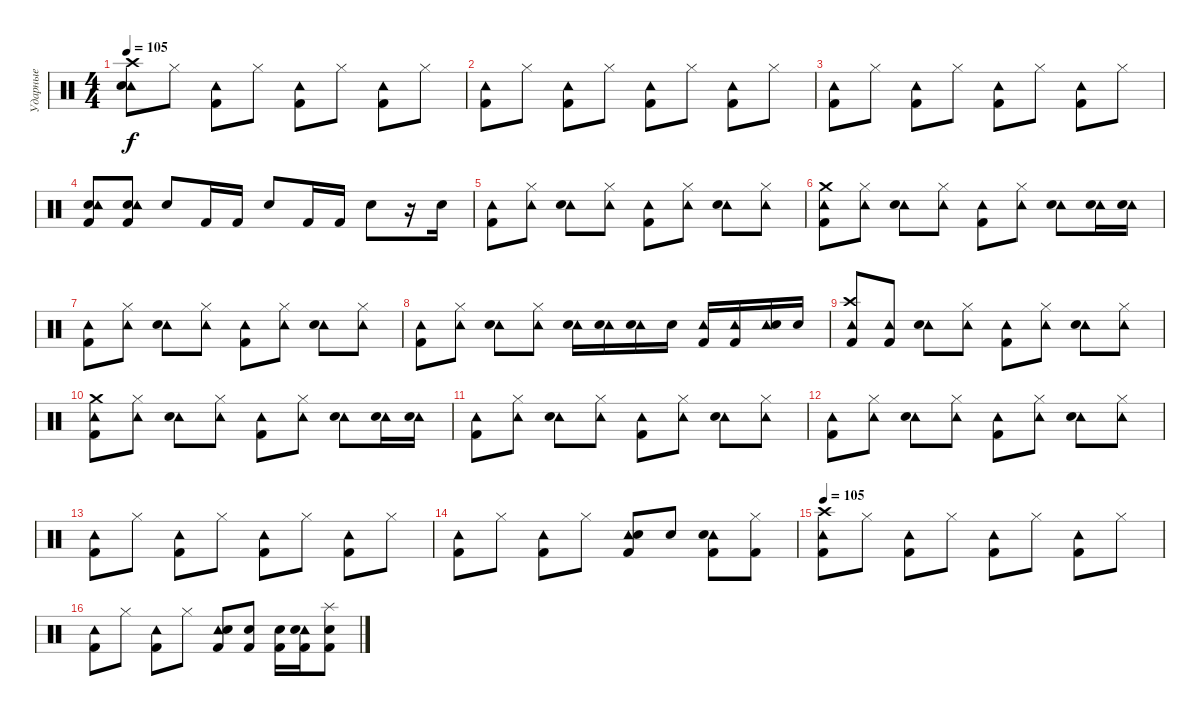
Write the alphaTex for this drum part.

\track ("Ударные" "Ударные") {instrument percussion}
\staff {score}
\articulation defaults
\ts (4 4)
\tempo 105
\clef neutral
\ks c
("Tambourine (hit)" "Crash high (hit)" "Snare (hit) 2").8{dy f} "Hi-Hat (closed)".8 ("Tambourine (hit)" "Kick (hit) 2").8 "Hi-Hat (closed)".8 ("Tambourine (hit)" "Kick (hit) 2").8 "Hi-Hat (closed)".8 ("Tambourine (hit)" "Kick (hit) 2").8 "Hi-Hat (closed)".8 |
("Tambourine (hit)" "Kick (hit) 2").8 "Hi-Hat (closed)".8 ("Tambourine (hit)" "Kick (hit) 2").8 "Hi-Hat (closed)".8 ("Tambourine (hit)" "Kick (hit) 2").8 "Hi-Hat (closed)".8 ("Tambourine (hit)" "Kick (hit) 2").8 "Hi-Hat (closed)".8 |
("Tambourine (hit)" "Kick (hit) 2").8 "Hi-Hat (closed)".8 ("Tambourine (hit)" "Kick (hit) 2").8 "Hi-Hat (closed)".8 ("Tambourine (hit)" "Kick (hit) 2").8 "Hi-Hat (closed)".8 ("Tambourine (hit)" "Kick (hit) 2").8 "Hi-Hat (closed)".8 |
("Snare (hit) 2" "Kick (hit) 2" "Tambourine (hit)").8 ("Snare (hit) 2" "Kick (hit) 2" "Tambourine (hit)").8 "Electric Snare (hit)".8 "Kick (hit) 2".16 "Kick (hit) 2".16 "Electric Snare (hit)".8 "Kick (hit) 2".16 "Kick (hit) 2".16 "Electric Snare (hit)".8 r.16 "Electric Snare (hit)".16 |
("Tambourine (hit)" "Kick (hit) 2").8 ("Tambourine (hit)" "Hi-Hat (closed)").8 ("Tambourine (hit)" "Snare (hit) 2").8 ("Tambourine (hit)" "Hi-Hat (closed)").8 ("Tambourine (hit)" "Kick (hit) 2").8 ("Tambourine (hit)" "Hi-Hat (closed)").8 ("Tambourine (hit)" "Snare (hit) 2").8 ("Tambourine (hit)" "Hi-Hat (closed)").8 |
("Tambourine (hit)" "Crash medium (hit)" "Kick (hit) 2").8 ("Tambourine (hit)" "Hi-Hat (closed)").8 ("Tambourine (hit)" "Snare (hit) 2").8 ("Tambourine (hit)" "Hi-Hat (closed)").8 ("Tambourine (hit)" "Kick (hit) 2").8 ("Tambourine (hit)" "Hi-Hat (closed)").8 ("Tambourine (hit)" "Snare (hit) 2").8 ("Tambourine (hit)" "Snare (hit) 2").16 ("Tambourine (hit)" "Snare (hit) 2").16 |
("Tambourine (hit)" "Kick (hit) 2").8 ("Tambourine (hit)" "Hi-Hat (closed)").8 ("Tambourine (hit)" "Snare (hit) 2").8 ("Tambourine (hit)" "Hi-Hat (closed)").8 ("Tambourine (hit)" "Kick (hit) 2").8 ("Tambourine (hit)" "Hi-Hat (closed)").8 ("Tambourine (hit)" "Snare (hit) 2").8 ("Tambourine (hit)" "Hi-Hat (closed)").8 |
("Tambourine (hit)" "Kick (hit) 2").8 ("Tambourine (hit)" "Hi-Hat (closed)").8 ("Tambourine (hit)" "Snare (hit) 2").8 ("Tambourine (hit)" "Hi-Hat (closed)").8 ("Tambourine (hit)" "Snare (hit) 2").16 ("Tambourine (hit)" "Snare (hit) 2").16 ("Tambourine (hit)" "Snare (hit) 2").16 "Snare (hit) 2".16 ("Tambourine (hit)" "Kick (hit) 2").16 ("Tambourine (hit)" "Kick (hit) 2").16 ("Tambourine (hit)" "Snare (hit) 2").16 "Snare (hit) 2".16 |
("Tambourine (hit)" "Crash high (hit)" "Kick (hit) 2").8 ("Tambourine (hit)" "Kick (hit) 2").8 ("Tambourine (hit)" "Snare (hit) 2").8 ("Tambourine (hit)" "Hi-Hat (closed)").8 ("Tambourine (hit)" "Kick (hit) 2").8 ("Tambourine (hit)" "Hi-Hat (closed)").8 ("Tambourine (hit)" "Snare (hit) 2").8 ("Tambourine (hit)" "Hi-Hat (closed)").8 |
("Tambourine (hit)" "Crash medium (hit)" "Kick (hit) 2").8 ("Tambourine (hit)" "Hi-Hat (closed)").8 ("Tambourine (hit)" "Snare (hit) 2").8 ("Tambourine (hit)" "Hi-Hat (closed)").8 ("Tambourine (hit)" "Kick (hit) 2").8 ("Tambourine (hit)" "Hi-Hat (closed)").8 ("Tambourine (hit)" "Snare (hit) 2").8 ("Tambourine (hit)" "Snare (hit) 2").16 ("Tambourine (hit)" "Snare (hit) 2").16 |
("Tambourine (hit)" "Kick (hit) 2").8 ("Tambourine (hit)" "Hi-Hat (closed)").8 ("Tambourine (hit)" "Snare (hit) 2").8 ("Tambourine (hit)" "Hi-Hat (closed)").8 ("Tambourine (hit)" "Kick (hit) 2").8 ("Tambourine (hit)" "Hi-Hat (closed)").8 ("Tambourine (hit)" "Snare (hit) 2").8 ("Tambourine (hit)" "Hi-Hat (closed)").8 |
("Tambourine (hit)" "Kick (hit) 2").8 ("Tambourine (hit)" "Hi-Hat (closed)").8 ("Tambourine (hit)" "Snare (hit) 2").8 ("Tambourine (hit)" "Hi-Hat (closed)").8 ("Tambourine (hit)" "Kick (hit) 2").8 ("Tambourine (hit)" "Hi-Hat (closed)").8 ("Tambourine (hit)" "Snare (hit) 2").8 ("Tambourine (hit)" "Hi-Hat (closed)").8 |
("Tambourine (hit)" "Kick (hit) 2").8 "Hi-Hat (closed)".8 ("Tambourine (hit)" "Kick (hit) 2").8 "Hi-Hat (closed)".8 ("Tambourine (hit)" "Kick (hit) 2").8 "Hi-Hat (closed)".8 ("Tambourine (hit)" "Kick (hit) 2").8 "Hi-Hat (closed)".8 |
("Tambourine (hit)" "Kick (hit) 2").8 "Hi-Hat (closed)".8 ("Tambourine (hit)" "Kick (hit) 2").8 "Hi-Hat (closed)".8 ("Tambourine (hit)" "Snare (hit) 2" "Kick (hit) 2").8 "Snare (hit) 2".8 ("Tambourine (hit)" "Electric Snare (hit)" "Kick (hit) 2").8 ("Kick (hit) 2" "Hi-Hat (closed)").8 |
\tempo 105
("Tambourine (hit)" "Crash high (hit)" "Kick (hit) 2").8 "Hi-Hat (closed)".8 ("Tambourine (hit)" "Kick (hit) 2").8 "Hi-Hat (closed)".8 ("Tambourine (hit)" "Kick (hit) 2").8 "Hi-Hat (closed)".8 ("Tambourine (hit)" "Kick (hit) 2").8 "Hi-Hat (closed)".8 |
("Tambourine (hit)" "Kick (hit) 2").8 "Hi-Hat (closed)".8 ("Tambourine (hit)" "Kick (hit) 2").8 "Hi-Hat (closed)".8 ("Tambourine (hit)" "Snare (hit) 2" "Kick (hit) 2").8 ("Snare (hit) 2" "Kick (hit) 2").8 ("Electric Snare (hit)" "Kick (hit) 2").16 ("Tambourine (hit)" "Electric Snare (hit)" "Kick (hit) 2").16 ("Splash (hit)" "Snare (hit) 2" "Kick (hit) 2").8
